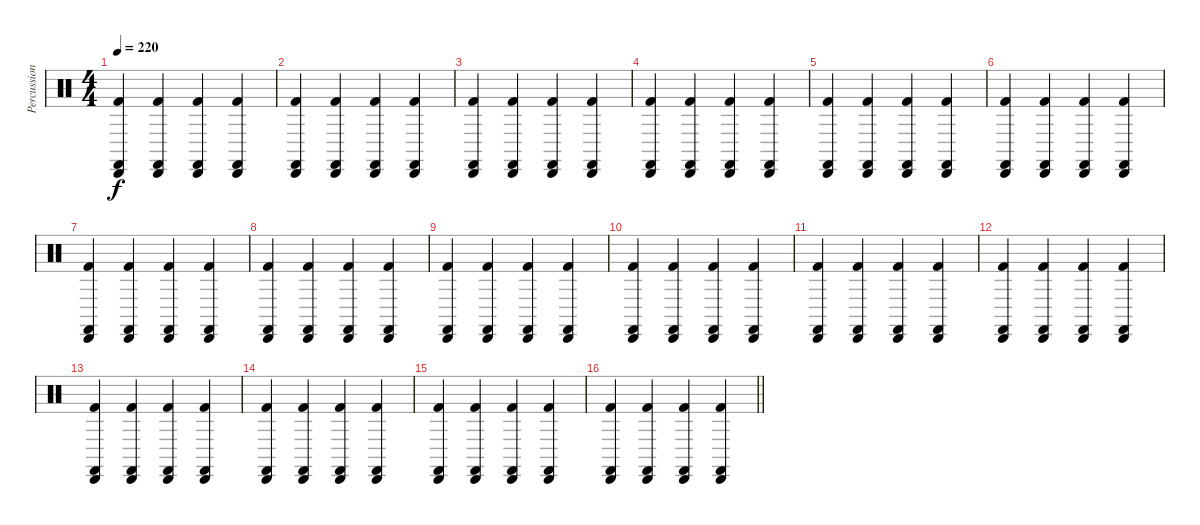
\track ("Percussions" "Percussion") {instrument percussion}
\staff {score}
\articulation defaults
\ts (4 4)
\tempo 220
\clef neutral
\ks c
("Kick (hit) 2" "Cabasa (hit)" "Castanets (hit)").4{dy f} ("Kick (hit) 2" "Cabasa (hit)" "Castanets (hit)").4 ("Kick (hit) 2" "Cabasa (hit)" "Castanets (hit)").4 ("Kick (hit) 2" "Cabasa (hit)" "Castanets (hit)").4 |
("Kick (hit) 2" "Cabasa (hit)" "Castanets (hit)").4 ("Kick (hit) 2" "Cabasa (hit)" "Castanets (hit)").4 ("Kick (hit) 2" "Cabasa (hit)" "Castanets (hit)").4 ("Kick (hit) 2" "Cabasa (hit)" "Castanets (hit)").4 |
("Kick (hit) 2" "Cabasa (hit)" "Castanets (hit)").4 ("Kick (hit) 2" "Cabasa (hit)" "Castanets (hit)").4 ("Kick (hit) 2" "Cabasa (hit)" "Castanets (hit)").4 ("Kick (hit) 2" "Cabasa (hit)" "Castanets (hit)").4 |
("Kick (hit) 2" "Cabasa (hit)" "Castanets (hit)").4 ("Kick (hit) 2" "Cabasa (hit)" "Castanets (hit)").4 ("Kick (hit) 2" "Cabasa (hit)" "Castanets (hit)").4 ("Kick (hit) 2" "Cabasa (hit)" "Castanets (hit)").4 |
("Kick (hit) 2" "Cabasa (hit)" "Castanets (hit)").4 ("Kick (hit) 2" "Cabasa (hit)" "Castanets (hit)").4 ("Kick (hit) 2" "Cabasa (hit)" "Castanets (hit)").4 ("Kick (hit) 2" "Cabasa (hit)" "Castanets (hit)").4 |
("Kick (hit) 2" "Cabasa (hit)" "Castanets (hit)").4 ("Kick (hit) 2" "Cabasa (hit)" "Castanets (hit)").4 ("Kick (hit) 2" "Cabasa (hit)" "Castanets (hit)").4 ("Kick (hit) 2" "Cabasa (hit)" "Castanets (hit)").4 |
("Kick (hit) 2" "Cabasa (hit)" "Castanets (hit)").4 ("Kick (hit) 2" "Cabasa (hit)" "Castanets (hit)").4 ("Kick (hit) 2" "Cabasa (hit)" "Castanets (hit)").4 ("Kick (hit) 2" "Cabasa (hit)" "Castanets (hit)").4 |
("Kick (hit) 2" "Cabasa (hit)" "Castanets (hit)").4 ("Kick (hit) 2" "Cabasa (hit)" "Castanets (hit)").4 ("Kick (hit) 2" "Cabasa (hit)" "Castanets (hit)").4 ("Kick (hit) 2" "Cabasa (hit)" "Castanets (hit)").4 |
("Kick (hit) 2" "Cabasa (hit)" "Castanets (hit)").4 ("Kick (hit) 2" "Cabasa (hit)" "Castanets (hit)").4 ("Kick (hit) 2" "Cabasa (hit)" "Castanets (hit)").4 ("Kick (hit) 2" "Cabasa (hit)" "Castanets (hit)").4 |
("Kick (hit) 2" "Cabasa (hit)" "Castanets (hit)").4 ("Kick (hit) 2" "Cabasa (hit)" "Castanets (hit)").4 ("Kick (hit) 2" "Cabasa (hit)" "Castanets (hit)").4 ("Kick (hit) 2" "Cabasa (hit)" "Castanets (hit)").4 |
("Kick (hit) 2" "Cabasa (hit)" "Castanets (hit)").4 ("Kick (hit) 2" "Cabasa (hit)" "Castanets (hit)").4 ("Kick (hit) 2" "Cabasa (hit)" "Castanets (hit)").4 ("Kick (hit) 2" "Cabasa (hit)" "Castanets (hit)").4 |
("Kick (hit) 2" "Cabasa (hit)" "Castanets (hit)").4 ("Kick (hit) 2" "Cabasa (hit)" "Castanets (hit)").4 ("Kick (hit) 2" "Cabasa (hit)" "Castanets (hit)").4 ("Kick (hit) 2" "Cabasa (hit)" "Castanets (hit)").4 |
("Kick (hit) 2" "Cabasa (hit)" "Castanets (hit)").4 ("Kick (hit) 2" "Cabasa (hit)" "Castanets (hit)").4 ("Kick (hit) 2" "Cabasa (hit)" "Castanets (hit)").4 ("Kick (hit) 2" "Cabasa (hit)" "Castanets (hit)").4 |
("Kick (hit) 2" "Cabasa (hit)" "Castanets (hit)").4 ("Kick (hit) 2" "Cabasa (hit)" "Castanets (hit)").4 ("Kick (hit) 2" "Cabasa (hit)" "Castanets (hit)").4 ("Kick (hit) 2" "Cabasa (hit)" "Castanets (hit)").4 |
("Kick (hit) 2" "Cabasa (hit)" "Castanets (hit)").4 ("Kick (hit) 2" "Cabasa (hit)" "Castanets (hit)").4 ("Kick (hit) 2" "Cabasa (hit)" "Castanets (hit)").4 ("Kick (hit) 2" "Cabasa (hit)" "Castanets (hit)").4 |
\barLineRight lightlight
("Kick (hit) 2" "Cabasa (hit)" "Castanets (hit)").4 ("Kick (hit) 2" "Cabasa (hit)" "Castanets (hit)").4 ("Kick (hit) 2" "Cabasa (hit)" "Castanets (hit)").4 ("Kick (hit) 2" "Cabasa (hit)" "Castanets (hit)").4
